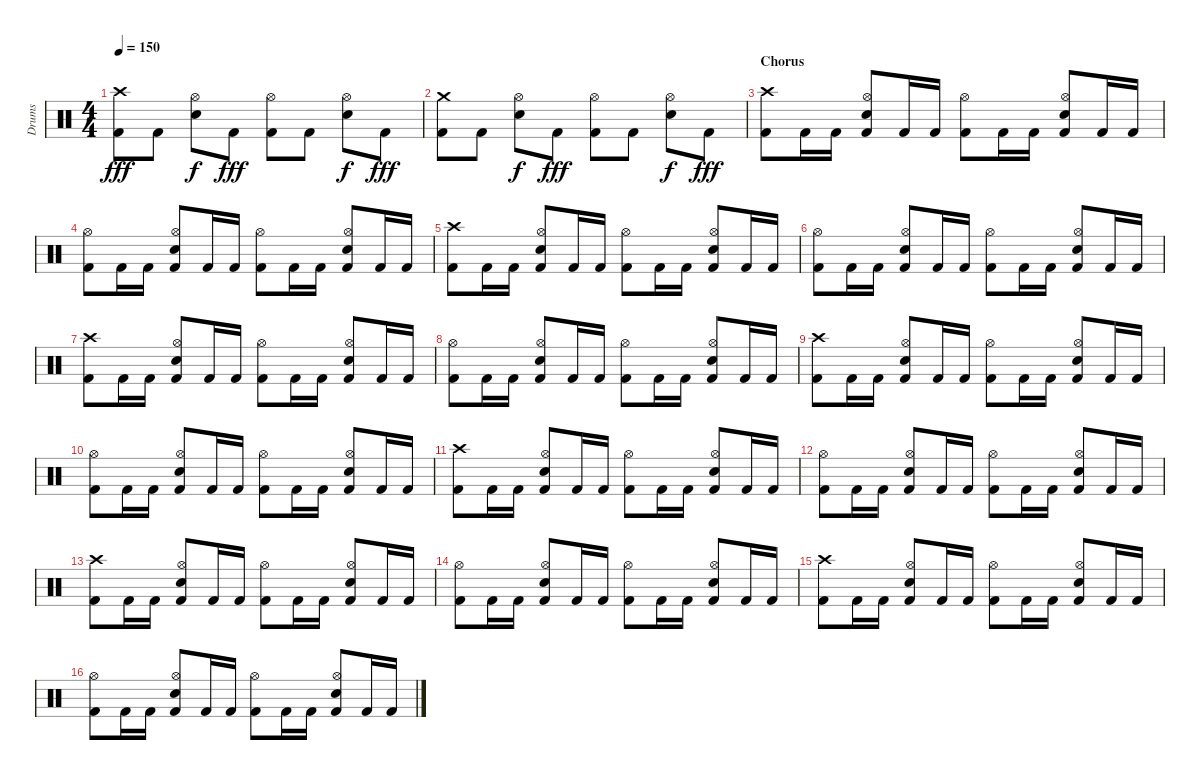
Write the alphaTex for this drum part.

\track ("Drums" "Drums") {instrument percussion}
\staff {score}
\articulation defaults
\ts (4 4)
\tempo 150
\clef neutral
\ks c
("Crash high (hit)" "Kick (hit) 2").8{dy fff} "Kick (hit) 2".8 ("Hi-Hat (open)" "Snare (hit) 2").8{dy f} "Kick (hit) 2".8{dy fff} ("Hi-Hat (open)" "Kick (hit) 2").8 "Kick (hit) 2".8 ("Hi-Hat (open)" "Snare (hit) 2").8{dy f} "Kick (hit) 2".8{dy fff} |
("Crash medium (hit)" "Kick (hit) 2").8 "Kick (hit) 2".8 ("Hi-Hat (open)" "Snare (hit) 2").8{dy f} "Kick (hit) 2".8{dy fff} ("Hi-Hat (open)" "Kick (hit) 2").8 "Kick (hit) 2".8 ("Hi-Hat (open)" "Snare (hit) 2").8{dy f} "Kick (hit) 2".8{dy fff} |
\section ("" "Chorus")
("Crash high (hit)" "Kick (hit) 2").8 "Kick (hit) 2".16 "Kick (hit) 2".16 ("Hi-Hat (open)" "Snare (hit) 2" "Kick (hit) 2").8 "Kick (hit) 2".16 "Kick (hit) 2".16 ("Hi-Hat (open)" "Kick (hit) 2").8 "Kick (hit) 2".16 "Kick (hit) 2".16 ("Hi-Hat (open)" "Snare (hit) 2" "Kick (hit) 2").8 "Kick (hit) 2".16 "Kick (hit) 2".16 |
("Hi-Hat (open)" "Kick (hit) 2").8 "Kick (hit) 2".16 "Kick (hit) 2".16 ("Hi-Hat (open)" "Snare (hit) 2" "Kick (hit) 2").8 "Kick (hit) 2".16 "Kick (hit) 2".16 ("Hi-Hat (open)" "Kick (hit) 2").8 "Kick (hit) 2".16 "Kick (hit) 2".16 ("Hi-Hat (open)" "Snare (hit) 2" "Kick (hit) 2").8 "Kick (hit) 2".16 "Kick (hit) 2".16 |
("Crash high (hit)" "Kick (hit) 2").8 "Kick (hit) 2".16 "Kick (hit) 2".16 ("Hi-Hat (open)" "Snare (hit) 2" "Kick (hit) 2").8 "Kick (hit) 2".16 "Kick (hit) 2".16 ("Hi-Hat (open)" "Kick (hit) 2").8 "Kick (hit) 2".16 "Kick (hit) 2".16 ("Hi-Hat (open)" "Snare (hit) 2" "Kick (hit) 2").8 "Kick (hit) 2".16 "Kick (hit) 2".16 |
("Hi-Hat (open)" "Kick (hit) 2").8 "Kick (hit) 2".16 "Kick (hit) 2".16 ("Hi-Hat (open)" "Snare (hit) 2" "Kick (hit) 2").8 "Kick (hit) 2".16 "Kick (hit) 2".16 ("Hi-Hat (open)" "Kick (hit) 2").8 "Kick (hit) 2".16 "Kick (hit) 2".16 ("Hi-Hat (open)" "Snare (hit) 2" "Kick (hit) 2").8 "Kick (hit) 2".16 "Kick (hit) 2".16 |
("Crash high (hit)" "Kick (hit) 2").8 "Kick (hit) 2".16 "Kick (hit) 2".16 ("Hi-Hat (open)" "Snare (hit) 2" "Kick (hit) 2").8 "Kick (hit) 2".16 "Kick (hit) 2".16 ("Hi-Hat (open)" "Kick (hit) 2").8 "Kick (hit) 2".16 "Kick (hit) 2".16 ("Hi-Hat (open)" "Snare (hit) 2" "Kick (hit) 2").8 "Kick (hit) 2".16 "Kick (hit) 2".16 |
("Hi-Hat (open)" "Kick (hit) 2").8 "Kick (hit) 2".16 "Kick (hit) 2".16 ("Hi-Hat (open)" "Snare (hit) 2" "Kick (hit) 2").8 "Kick (hit) 2".16 "Kick (hit) 2".16 ("Hi-Hat (open)" "Kick (hit) 2").8 "Kick (hit) 2".16 "Kick (hit) 2".16 ("Hi-Hat (open)" "Snare (hit) 2" "Kick (hit) 2").8 "Kick (hit) 2".16 "Kick (hit) 2".16 |
("Crash high (hit)" "Kick (hit) 2").8 "Kick (hit) 2".16 "Kick (hit) 2".16 ("Hi-Hat (open)" "Snare (hit) 2" "Kick (hit) 2").8 "Kick (hit) 2".16 "Kick (hit) 2".16 ("Hi-Hat (open)" "Kick (hit) 2").8 "Kick (hit) 2".16 "Kick (hit) 2".16 ("Hi-Hat (open)" "Snare (hit) 2" "Kick (hit) 2").8 "Kick (hit) 2".16 "Kick (hit) 2".16 |
("Hi-Hat (open)" "Kick (hit) 2").8 "Kick (hit) 2".16 "Kick (hit) 2".16 ("Hi-Hat (open)" "Snare (hit) 2" "Kick (hit) 2").8 "Kick (hit) 2".16 "Kick (hit) 2".16 ("Hi-Hat (open)" "Kick (hit) 2").8 "Kick (hit) 2".16 "Kick (hit) 2".16 ("Hi-Hat (open)" "Snare (hit) 2" "Kick (hit) 2").8 "Kick (hit) 2".16 "Kick (hit) 2".16 |
("Crash high (hit)" "Kick (hit) 2").8 "Kick (hit) 2".16 "Kick (hit) 2".16 ("Hi-Hat (open)" "Snare (hit) 2" "Kick (hit) 2").8 "Kick (hit) 2".16 "Kick (hit) 2".16 ("Hi-Hat (open)" "Kick (hit) 2").8 "Kick (hit) 2".16 "Kick (hit) 2".16 ("Hi-Hat (open)" "Snare (hit) 2" "Kick (hit) 2").8 "Kick (hit) 2".16 "Kick (hit) 2".16 |
("Hi-Hat (open)" "Kick (hit) 2").8 "Kick (hit) 2".16 "Kick (hit) 2".16 ("Hi-Hat (open)" "Snare (hit) 2" "Kick (hit) 2").8 "Kick (hit) 2".16 "Kick (hit) 2".16 ("Hi-Hat (open)" "Kick (hit) 2").8 "Kick (hit) 2".16 "Kick (hit) 2".16 ("Hi-Hat (open)" "Snare (hit) 2" "Kick (hit) 2").8 "Kick (hit) 2".16 "Kick (hit) 2".16 |
("Crash high (hit)" "Kick (hit) 2").8 "Kick (hit) 2".16 "Kick (hit) 2".16 ("Hi-Hat (open)" "Snare (hit) 2" "Kick (hit) 2").8 "Kick (hit) 2".16 "Kick (hit) 2".16 ("Hi-Hat (open)" "Kick (hit) 2").8 "Kick (hit) 2".16 "Kick (hit) 2".16 ("Hi-Hat (open)" "Snare (hit) 2" "Kick (hit) 2").8 "Kick (hit) 2".16 "Kick (hit) 2".16 |
("Hi-Hat (open)" "Kick (hit) 2").8 "Kick (hit) 2".16 "Kick (hit) 2".16 ("Hi-Hat (open)" "Snare (hit) 2" "Kick (hit) 2").8 "Kick (hit) 2".16 "Kick (hit) 2".16 ("Hi-Hat (open)" "Kick (hit) 2").8 "Kick (hit) 2".16 "Kick (hit) 2".16 ("Hi-Hat (open)" "Snare (hit) 2" "Kick (hit) 2").8 "Kick (hit) 2".16 "Kick (hit) 2".16 |
("Crash high (hit)" "Kick (hit) 2").8 "Kick (hit) 2".16 "Kick (hit) 2".16 ("Hi-Hat (open)" "Snare (hit) 2" "Kick (hit) 2").8 "Kick (hit) 2".16 "Kick (hit) 2".16 ("Hi-Hat (open)" "Kick (hit) 2").8 "Kick (hit) 2".16 "Kick (hit) 2".16 ("Hi-Hat (open)" "Snare (hit) 2" "Kick (hit) 2").8 "Kick (hit) 2".16 "Kick (hit) 2".16 |
("Hi-Hat (open)" "Kick (hit) 2").8 "Kick (hit) 2".16 "Kick (hit) 2".16 ("Hi-Hat (open)" "Snare (hit) 2" "Kick (hit) 2").8 "Kick (hit) 2".16 "Kick (hit) 2".16 ("Hi-Hat (open)" "Kick (hit) 2").8 "Kick (hit) 2".16 "Kick (hit) 2".16 ("Hi-Hat (open)" "Snare (hit) 2" "Kick (hit) 2").8 "Kick (hit) 2".16 "Kick (hit) 2".16
